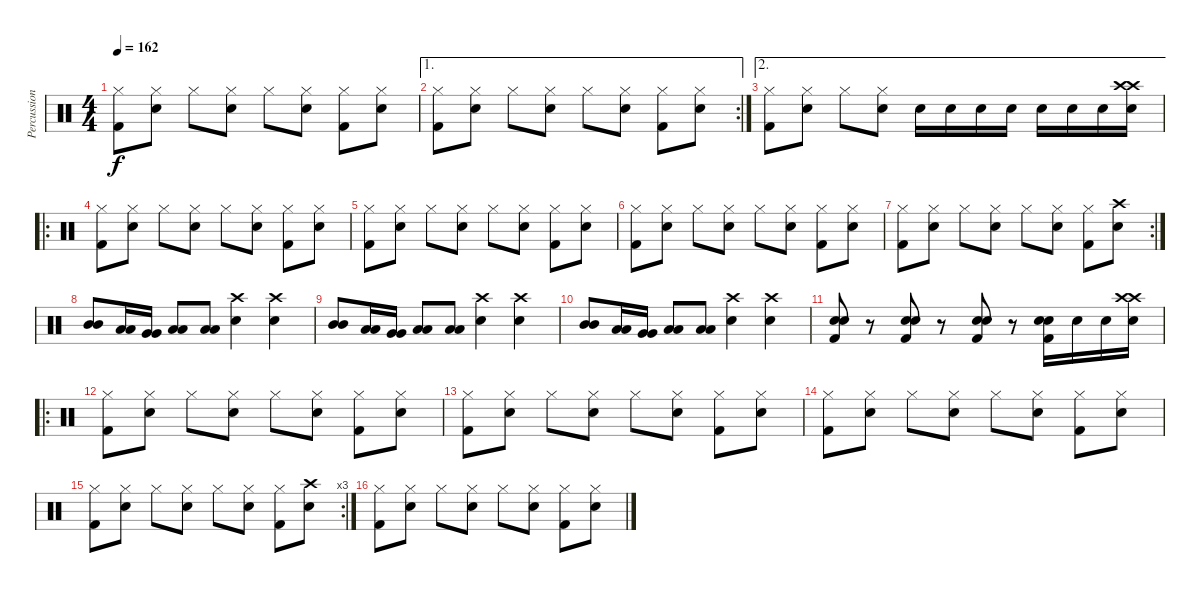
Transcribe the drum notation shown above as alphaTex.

\track ("Percussions" "Percussion") {instrument percussion}
\staff {score}
\articulation defaults
\ts (4 4)
\tempo 162
\clef neutral
\ks c
("Hi-Hat (closed)" "Kick (hit) 2").8{dy f} ("Hi-Hat (closed)" "Electric Snare (hit)").8 "Hi-Hat (closed)".8 ("Hi-Hat (closed)" "Electric Snare (hit)").8 "Hi-Hat (closed)".8 ("Hi-Hat (closed)" "Electric Snare (hit)").8 ("Hi-Hat (closed)" "Kick (hit) 2").8 ("Hi-Hat (closed)" "Electric Snare (hit)").8 |
\ae 1
\rc 2
("Hi-Hat (closed)" "Kick (hit) 2").8 ("Hi-Hat (closed)" "Electric Snare (hit)").8 "Hi-Hat (closed)".8 ("Hi-Hat (closed)" "Electric Snare (hit)").8 "Hi-Hat (closed)".8 ("Hi-Hat (closed)" "Electric Snare (hit)").8 ("Hi-Hat (closed)" "Kick (hit) 2").8 ("Hi-Hat (closed)" "Electric Snare (hit)").8 |
\ae 2
("Hi-Hat (closed)" "Kick (hit) 2").8 ("Hi-Hat (closed)" "Electric Snare (hit)").8 "Hi-Hat (closed)".8 ("Hi-Hat (closed)" "Electric Snare (hit)").8 "Electric Snare (hit)".16 "Electric Snare (hit)".16 "Electric Snare (hit)".16 "Electric Snare (hit)".16 "Electric Snare (hit)".16 "Electric Snare (hit)".16 "Electric Snare (hit)".16 ("Crash high (hit)" "Crash high (hit)" "Electric Snare (hit)").16 |
\ro
("Hi-Hat (closed)" "Kick (hit) 2").8 ("Hi-Hat (closed)" "Electric Snare (hit)").8 "Hi-Hat (closed)".8 ("Hi-Hat (closed)" "Electric Snare (hit)").8 "Hi-Hat (closed)".8 ("Hi-Hat (closed)" "Electric Snare (hit)").8 ("Hi-Hat (closed)" "Kick (hit) 2").8 ("Hi-Hat (closed)" "Electric Snare (hit)").8 |
("Hi-Hat (closed)" "Kick (hit) 2").8 ("Hi-Hat (closed)" "Electric Snare (hit)").8 "Hi-Hat (closed)".8 ("Hi-Hat (closed)" "Electric Snare (hit)").8 "Hi-Hat (closed)".8 ("Hi-Hat (closed)" "Electric Snare (hit)").8 ("Hi-Hat (closed)" "Kick (hit) 2").8 ("Hi-Hat (closed)" "Electric Snare (hit)").8 |
("Hi-Hat (closed)" "Kick (hit) 2").8 ("Hi-Hat (closed)" "Electric Snare (hit)").8 "Hi-Hat (closed)".8 ("Hi-Hat (closed)" "Electric Snare (hit)").8 "Hi-Hat (closed)".8 ("Hi-Hat (closed)" "Electric Snare (hit)").8 ("Hi-Hat (closed)" "Kick (hit) 2").8 ("Hi-Hat (closed)" "Electric Snare (hit)").8 |
\rc 2
("Hi-Hat (closed)" "Kick (hit) 2").8 ("Hi-Hat (closed)" "Electric Snare (hit)").8 "Hi-Hat (closed)".8 ("Hi-Hat (closed)" "Electric Snare (hit)").8 "Hi-Hat (closed)".8 ("Hi-Hat (closed)" "Electric Snare (hit)").8 ("Hi-Hat (closed)" "Kick (hit) 2").8 ("Crash high (hit)" "Electric Snare (hit)").8 |
("Mid Tom (hit)" "Mid Tom (hit)").8 ("Low Tom (hit)" "Low Tom (hit)").16 ("Very Low Tom (hit)" "Very Low Tom (hit)").16 ("Low Floor Tom (hit)" "Low Floor Tom (hit)").8 ("Low Floor Tom (hit)" "Low Floor Tom (hit)").8 ("Crash high (hit)" "Electric Snare (hit)").4 ("Crash high (hit)" "Electric Snare (hit)").4 |
("Mid Tom (hit)" "Mid Tom (hit)").8 ("Low Tom (hit)" "Low Tom (hit)").16 ("Very Low Tom (hit)" "Very Low Tom (hit)").16 ("Low Floor Tom (hit)" "Low Floor Tom (hit)").8 ("Low Floor Tom (hit)" "Low Floor Tom (hit)").8 ("Crash high (hit)" "Electric Snare (hit)").4 ("Crash high (hit)" "Electric Snare (hit)").4 |
("Mid Tom (hit)" "Mid Tom (hit)").8 ("Low Tom (hit)" "Low Tom (hit)").16 ("Very Low Tom (hit)" "Very Low Tom (hit)").16 ("Low Floor Tom (hit)" "Low Floor Tom (hit)").8 ("Low Floor Tom (hit)" "Low Floor Tom (hit)").8 ("Crash high (hit)" "Electric Snare (hit)").4 ("Crash high (hit)" "Electric Snare (hit)").4 |
("Electric Snare (hit)" "Electric Snare (hit)" "Kick (hit) 2").8 r.8 ("Electric Snare (hit)" "Electric Snare (hit)" "Kick (hit) 2").8 r.8 ("Electric Snare (hit)" "Electric Snare (hit)" "Kick (hit) 2").8 r.8 ("Electric Snare (hit)" "Electric Snare (hit)" "Kick (hit) 2").16 "Electric Snare (hit)".16 "Electric Snare (hit)".16 ("Crash high (hit)" "Crash high (hit)" "Electric Snare (hit)").16 |
\ro
("Hi-Hat (closed)" "Kick (hit) 2").8 ("Hi-Hat (closed)" "Electric Snare (hit)").8 "Hi-Hat (closed)".8 ("Hi-Hat (closed)" "Electric Snare (hit)").8 "Hi-Hat (closed)".8 ("Hi-Hat (closed)" "Electric Snare (hit)").8 ("Hi-Hat (closed)" "Kick (hit) 2").8 ("Hi-Hat (closed)" "Electric Snare (hit)").8 |
("Hi-Hat (closed)" "Kick (hit) 2").8 ("Hi-Hat (closed)" "Electric Snare (hit)").8 "Hi-Hat (closed)".8 ("Hi-Hat (closed)" "Electric Snare (hit)").8 "Hi-Hat (closed)".8 ("Hi-Hat (closed)" "Electric Snare (hit)").8 ("Hi-Hat (closed)" "Kick (hit) 2").8 ("Hi-Hat (closed)" "Electric Snare (hit)").8 |
("Hi-Hat (closed)" "Kick (hit) 2").8 ("Hi-Hat (closed)" "Electric Snare (hit)").8 "Hi-Hat (closed)".8 ("Hi-Hat (closed)" "Electric Snare (hit)").8 "Hi-Hat (closed)".8 ("Hi-Hat (closed)" "Electric Snare (hit)").8 ("Hi-Hat (closed)" "Kick (hit) 2").8 ("Hi-Hat (closed)" "Electric Snare (hit)").8 |
\rc 3
("Hi-Hat (closed)" "Kick (hit) 2").8 ("Hi-Hat (closed)" "Electric Snare (hit)").8 "Hi-Hat (closed)".8 ("Hi-Hat (closed)" "Electric Snare (hit)").8 "Hi-Hat (closed)".8 ("Hi-Hat (closed)" "Electric Snare (hit)").8 ("Hi-Hat (closed)" "Kick (hit) 2").8 ("Crash high (hit)" "Electric Snare (hit)").8 |
("Hi-Hat (closed)" "Kick (hit) 2").8 ("Hi-Hat (closed)" "Electric Snare (hit)").8 "Hi-Hat (closed)".8 ("Hi-Hat (closed)" "Electric Snare (hit)").8 "Hi-Hat (closed)".8 ("Hi-Hat (closed)" "Electric Snare (hit)").8 ("Hi-Hat (closed)" "Kick (hit) 2").8 ("Hi-Hat (closed)" "Electric Snare (hit)").8
